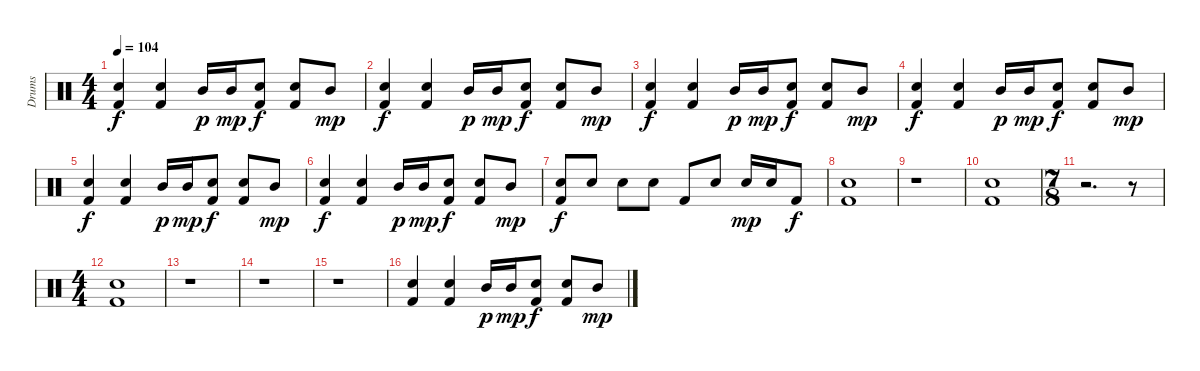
\track ("Drums" "Drums") {instrument percussion}
\staff {score}
\articulation defaults
\ts (4 4)
\tempo 104
\clef neutral
\ks c
("Snare (hit) 2" "Kick (hit) 2").4{dy f} ("Snare (hit) 2" "Kick (hit) 2").4 "Mid Tom (hit)".16{dy p} "Mid Tom (hit)".16{dy mp} ("Snare (hit) 2" "Kick (hit) 2").8{dy f} ("Snare (hit) 2" "Kick (hit) 2").8 "Mid Tom (hit)".8{dy mp} |
("Snare (hit) 2" "Kick (hit) 2").4{dy f} ("Snare (hit) 2" "Kick (hit) 2").4 "Mid Tom (hit)".16{dy p} "Mid Tom (hit)".16{dy mp} ("Snare (hit) 2" "Kick (hit) 2").8{dy f} ("Snare (hit) 2" "Kick (hit) 2").8 "Mid Tom (hit)".8{dy mp} |
("Snare (hit) 2" "Kick (hit) 2").4{dy f} ("Snare (hit) 2" "Kick (hit) 2").4 "Mid Tom (hit)".16{dy p} "Mid Tom (hit)".16{dy mp} ("Snare (hit) 2" "Kick (hit) 2").8{dy f} ("Snare (hit) 2" "Kick (hit) 2").8 "Mid Tom (hit)".8{dy mp} |
("Snare (hit) 2" "Kick (hit) 2").4{dy f} ("Snare (hit) 2" "Kick (hit) 2").4 "Mid Tom (hit)".16{dy p} "Mid Tom (hit)".16{dy mp} ("Snare (hit) 2" "Kick (hit) 2").8{dy f} ("Snare (hit) 2" "Kick (hit) 2").8 "Mid Tom (hit)".8{dy mp} |
("Snare (hit) 2" "Kick (hit) 2").4{dy f} ("Snare (hit) 2" "Kick (hit) 2").4 "Mid Tom (hit)".16{dy p} "Mid Tom (hit)".16{dy mp} ("Snare (hit) 2" "Kick (hit) 2").8{dy f} ("Snare (hit) 2" "Kick (hit) 2").8 "Mid Tom (hit)".8{dy mp} |
("Snare (hit) 2" "Kick (hit) 2").4{dy f} ("Snare (hit) 2" "Kick (hit) 2").4 "Mid Tom (hit)".16{dy p} "Mid Tom (hit)".16{dy mp} ("Snare (hit) 2" "Kick (hit) 2").8{dy f} ("Snare (hit) 2" "Kick (hit) 2").8 "Mid Tom (hit)".8{dy mp} |
("Snare (hit) 2" "Kick (hit) 2").8{dy f} "Snare (hit) 2".8 "Snare (hit) 2".8 "Snare (hit) 2".8 "Kick (hit) 2".8 "Snare (hit) 2".8 "Snare (hit) 2".16{dy mp} "Snare (hit) 2".16 "Kick (hit) 2".8{dy f} |
("Snare (hit) 2" "Kick (hit) 2").1 |
r.1 |
("Snare (hit) 2" "Kick (hit) 2").1 |
\ts (7 8)
r.2{d} r.8 |
\ts (4 4)
("Snare (hit) 2" "Kick (hit) 2").1 |
r.1 |
r.1 |
r.1 |
("Snare (hit) 2" "Kick (hit) 2").4 ("Snare (hit) 2" "Kick (hit) 2").4 "Mid Tom (hit)".16{dy p} "Mid Tom (hit)".16{dy mp} ("Snare (hit) 2" "Kick (hit) 2").8{dy f} ("Snare (hit) 2" "Kick (hit) 2").8 "Mid Tom (hit)".8{dy mp}
